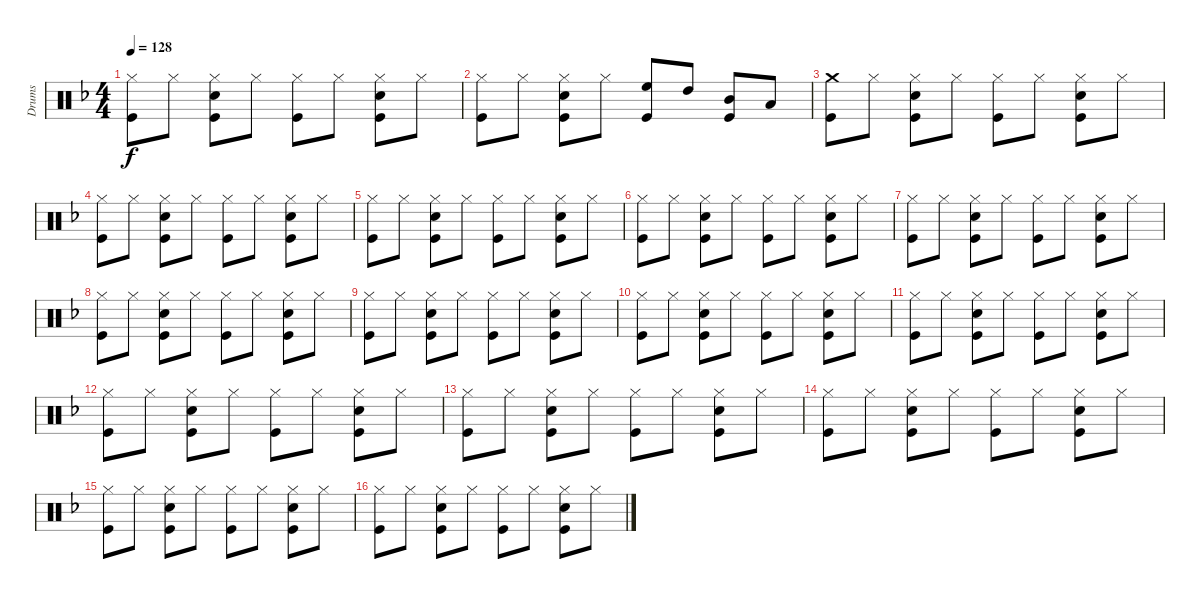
\track ("Drums" "Drums") {instrument percussion}
\staff {score}
\articulation defaults
\ts (4 4)
\tempo 128
\clef neutral
\ks f
("Hi-Hat (closed)" "Kick (hit)").8{dy f} "Hi-Hat (closed)".8 ("Hi-Hat (closed)" "Snare (hit) 2" "Kick (hit)").8 "Hi-Hat (closed)".8 ("Hi-Hat (closed)" "Kick (hit)").8 "Hi-Hat (closed)".8 ("Hi-Hat (closed)" "Snare (hit) 2" "Kick (hit)").8 "Hi-Hat (closed)".8 |
("Hi-Hat (closed)" "Kick (hit)").8 "Hi-Hat (closed)".8 ("Hi-Hat (closed)" "Snare (hit) 2" "Kick (hit)").8 "Hi-Hat (closed)".8 ("High Floor Tom (hit)" "Kick (hit)").8 "High Tom (hit)".8 ("Mid Tom (hit)" "Kick (hit)").8 "Low Tom (hit)".8 |
("Crash medium (hit)" "Kick (hit)").8 "Hi-Hat (closed)".8 ("Hi-Hat (closed)" "Snare (hit) 2" "Kick (hit)").8 "Hi-Hat (closed)".8 ("Hi-Hat (closed)" "Kick (hit)").8 "Hi-Hat (closed)".8 ("Hi-Hat (closed)" "Snare (hit) 2" "Kick (hit)").8 "Hi-Hat (closed)".8 |
("Hi-Hat (closed)" "Kick (hit)").8 "Hi-Hat (closed)".8 ("Hi-Hat (closed)" "Snare (hit) 2" "Kick (hit)").8 "Hi-Hat (closed)".8 ("Hi-Hat (closed)" "Kick (hit)").8 "Hi-Hat (closed)".8 ("Hi-Hat (closed)" "Snare (hit) 2" "Kick (hit)").8 "Hi-Hat (closed)".8 |
("Hi-Hat (closed)" "Kick (hit)").8 "Hi-Hat (closed)".8 ("Hi-Hat (closed)" "Snare (hit) 2" "Kick (hit)").8 "Hi-Hat (closed)".8 ("Hi-Hat (closed)" "Kick (hit)").8 "Hi-Hat (closed)".8 ("Hi-Hat (closed)" "Snare (hit) 2" "Kick (hit)").8 "Hi-Hat (closed)".8 |
("Hi-Hat (closed)" "Kick (hit)").8 "Hi-Hat (closed)".8 ("Hi-Hat (closed)" "Snare (hit) 2" "Kick (hit)").8 "Hi-Hat (closed)".8 ("Hi-Hat (closed)" "Kick (hit)").8 "Hi-Hat (closed)".8 ("Hi-Hat (closed)" "Snare (hit) 2" "Kick (hit)").8 "Hi-Hat (closed)".8 |
("Hi-Hat (closed)" "Kick (hit)").8 "Hi-Hat (closed)".8 ("Hi-Hat (closed)" "Snare (hit) 2" "Kick (hit)").8 "Hi-Hat (closed)".8 ("Hi-Hat (closed)" "Kick (hit)").8 "Hi-Hat (closed)".8 ("Hi-Hat (closed)" "Snare (hit) 2" "Kick (hit)").8 "Hi-Hat (closed)".8 |
("Hi-Hat (closed)" "Kick (hit)").8 "Hi-Hat (closed)".8 ("Hi-Hat (closed)" "Snare (hit) 2" "Kick (hit)").8 "Hi-Hat (closed)".8 ("Hi-Hat (closed)" "Kick (hit)").8 "Hi-Hat (closed)".8 ("Hi-Hat (closed)" "Snare (hit) 2" "Kick (hit)").8 "Hi-Hat (closed)".8 |
("Hi-Hat (closed)" "Kick (hit)").8 "Hi-Hat (closed)".8 ("Hi-Hat (closed)" "Snare (hit) 2" "Kick (hit)").8 "Hi-Hat (closed)".8 ("Hi-Hat (closed)" "Kick (hit)").8 "Hi-Hat (closed)".8 ("Hi-Hat (closed)" "Snare (hit) 2" "Kick (hit)").8 "Hi-Hat (closed)".8 |
("Hi-Hat (closed)" "Kick (hit)").8 "Hi-Hat (closed)".8 ("Hi-Hat (closed)" "Snare (hit) 2" "Kick (hit)").8 "Hi-Hat (closed)".8 ("Hi-Hat (closed)" "Kick (hit)").8 "Hi-Hat (closed)".8 ("Hi-Hat (closed)" "Snare (hit) 2" "Kick (hit)").8 "Hi-Hat (closed)".8 |
("Hi-Hat (closed)" "Kick (hit)").8 "Hi-Hat (closed)".8 ("Hi-Hat (closed)" "Snare (hit) 2" "Kick (hit)").8 "Hi-Hat (closed)".8 ("Hi-Hat (closed)" "Kick (hit)").8 "Hi-Hat (closed)".8 ("Hi-Hat (closed)" "Snare (hit) 2" "Kick (hit)").8 "Hi-Hat (closed)".8 |
("Hi-Hat (closed)" "Kick (hit)").8 "Hi-Hat (closed)".8 ("Hi-Hat (closed)" "Snare (hit) 2" "Kick (hit)").8 "Hi-Hat (closed)".8 ("Hi-Hat (closed)" "Kick (hit)").8 "Hi-Hat (closed)".8 ("Hi-Hat (closed)" "Snare (hit) 2" "Kick (hit)").8 "Hi-Hat (closed)".8 |
("Hi-Hat (closed)" "Kick (hit)").8 "Hi-Hat (closed)".8 ("Hi-Hat (closed)" "Snare (hit) 2" "Kick (hit)").8 "Hi-Hat (closed)".8 ("Hi-Hat (closed)" "Kick (hit)").8 "Hi-Hat (closed)".8 ("Hi-Hat (closed)" "Snare (hit) 2" "Kick (hit)").8 "Hi-Hat (closed)".8 |
("Hi-Hat (closed)" "Kick (hit)").8 "Hi-Hat (closed)".8 ("Hi-Hat (closed)" "Snare (hit) 2" "Kick (hit)").8 "Hi-Hat (closed)".8 ("Hi-Hat (closed)" "Kick (hit)").8 "Hi-Hat (closed)".8 ("Hi-Hat (closed)" "Snare (hit) 2" "Kick (hit)").8 "Hi-Hat (closed)".8 |
("Hi-Hat (closed)" "Kick (hit)").8 "Hi-Hat (closed)".8 ("Hi-Hat (closed)" "Snare (hit) 2" "Kick (hit)").8 "Hi-Hat (closed)".8 ("Hi-Hat (closed)" "Kick (hit)").8 "Hi-Hat (closed)".8 ("Hi-Hat (closed)" "Snare (hit) 2" "Kick (hit)").8 "Hi-Hat (closed)".8 |
("Hi-Hat (closed)" "Kick (hit)").8 "Hi-Hat (closed)".8 ("Hi-Hat (closed)" "Snare (hit) 2" "Kick (hit)").8 "Hi-Hat (closed)".8 ("Hi-Hat (closed)" "Kick (hit)").8 "Hi-Hat (closed)".8 ("Hi-Hat (closed)" "Snare (hit) 2" "Kick (hit)").8 "Hi-Hat (closed)".8
